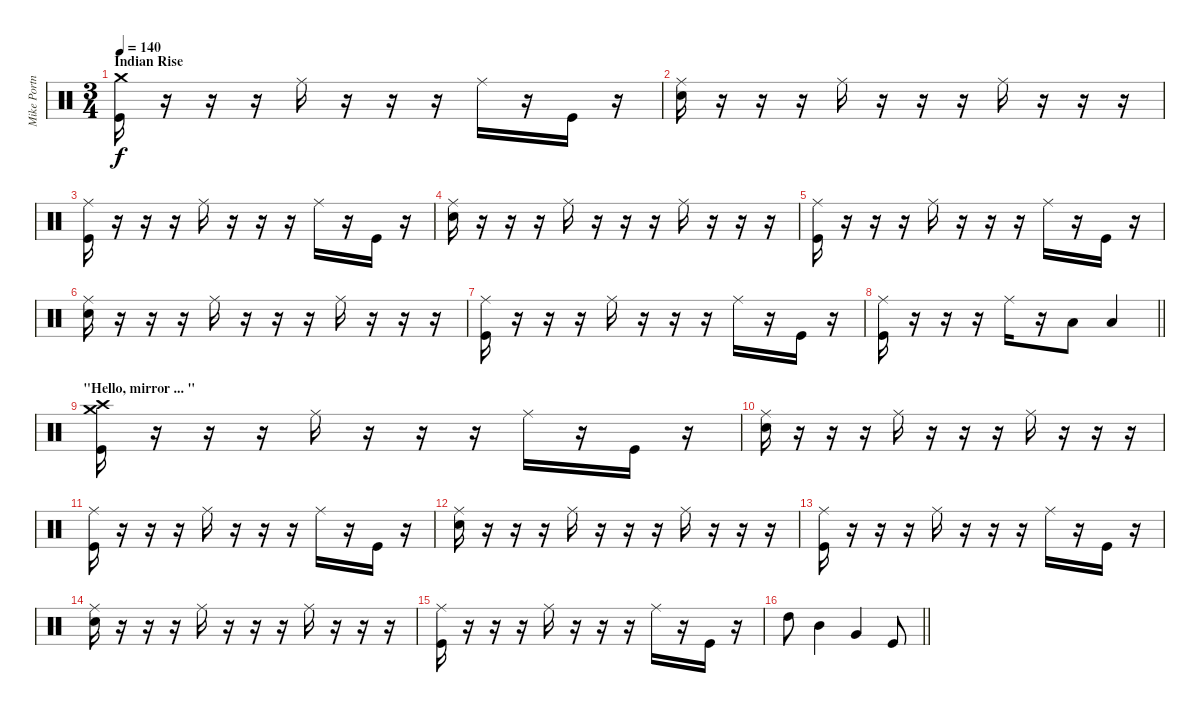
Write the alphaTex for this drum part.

\track ("Mike Portnoy" "Mike Portn") {instrument percussion}
\staff {score}
\articulation defaults
\ts (3 4)
\section ("" "Indian Rise")
\tempo 140
\clef neutral
\ks c
("Kick (hit)" "Crash medium (hit)").16{dy f} r.16 r.16 r.16 "Ride (middle)".16 r.16 r.16 r.16 "Ride (middle)".16 r.16 "Kick (hit)".16 r.16 |
("Electric Snare (hit)" "Ride (middle)").16 r.16 r.16 r.16 "Ride (middle)".16 r.16 r.16 r.16 "Ride (middle)".16 r.16 r.16 r.16 |
("Kick (hit)" "Ride (middle)").16 r.16 r.16 r.16 "Ride (middle)".16 r.16 r.16 r.16 "Ride (middle)".16 r.16 "Kick (hit)".16 r.16 |
("Electric Snare (hit)" "Ride (middle)").16 r.16 r.16 r.16 "Ride (middle)".16 r.16 r.16 r.16 "Ride (middle)".16 r.16 r.16 r.16 |
("Kick (hit)" "Ride (middle)").16 r.16 r.16 r.16 "Ride (middle)".16 r.16 r.16 r.16 "Ride (middle)".16 r.16 "Kick (hit)".16 r.16 |
("Electric Snare (hit)" "Ride (middle)").16 r.16 r.16 r.16 "Ride (middle)".16 r.16 r.16 r.16 "Ride (middle)".16 r.16 r.16 r.16 |
("Kick (hit)" "Ride (middle)").16 r.16 r.16 r.16 "Ride (middle)".16 r.16 r.16 r.16 "Ride (middle)".16 r.16 "Kick (hit)".16 r.16 |
\barLineRight lightlight
("Kick (hit)" "Ride (middle)").16 r.16 r.16 r.16 "Ride (middle)".16 r.16 "Low Floor Tom (hit)".8 "Low Floor Tom (hit)".4 |
\section ("" "\"Hello, mirror ... \"")
("Kick (hit)" "Crash high (hit)" "Crash medium (hit)").16 r.16 r.16 r.16 "Ride (middle)".16 r.16 r.16 r.16 "Ride (middle)".16 r.16 "Kick (hit)".16 r.16 |
("Electric Snare (hit)" "Ride (middle)").16 r.16 r.16 r.16 "Ride (middle)".16 r.16 r.16 r.16 "Ride (middle)".16 r.16 r.16 r.16 |
("Kick (hit)" "Ride (middle)").16 r.16 r.16 r.16 "Ride (middle)".16 r.16 r.16 r.16 "Ride (middle)".16 r.16 "Kick (hit)".16 r.16 |
("Electric Snare (hit)" "Ride (middle)").16 r.16 r.16 r.16 "Ride (middle)".16 r.16 r.16 r.16 "Ride (middle)".16 r.16 r.16 r.16 |
("Kick (hit)" "Ride (middle)").16 r.16 r.16 r.16 "Ride (middle)".16 r.16 r.16 r.16 "Ride (middle)".16 r.16 "Kick (hit)".16 r.16 |
("Electric Snare (hit)" "Ride (middle)").16 r.16 r.16 r.16 "Ride (middle)".16 r.16 r.16 r.16 "Ride (middle)".16 r.16 r.16 r.16 |
("Kick (hit)" "Ride (middle)").16 r.16 r.16 r.16 "Ride (middle)".16 r.16 r.16 r.16 "Ride (middle)".16 r.16 "Kick (hit)".16 r.16 |
\barLineRight lightlight "High Tom (hit)".8 "Mid Tom (hit)".4 "Very Low Tom (hit)".4 "Kick (hit)".8
